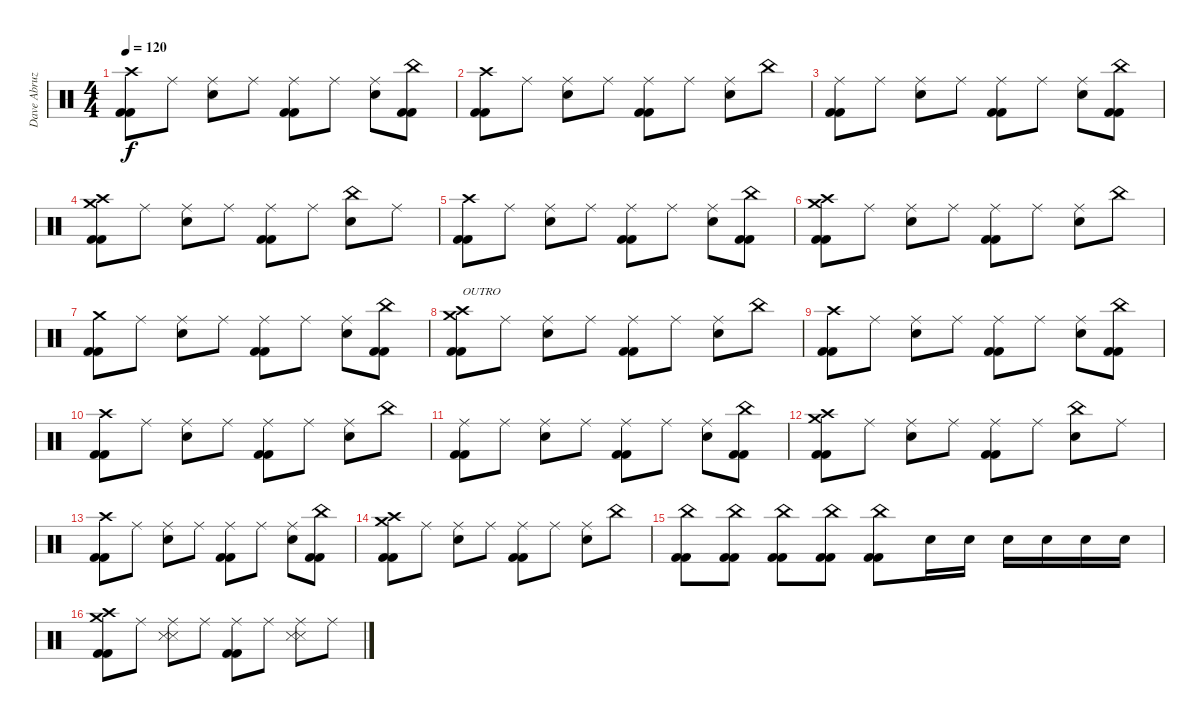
\track ("Dave Abruzzese" "Dave Abruz") {instrument percussion}
\staff {score}
\articulation defaults
\ts (4 4)
\tempo 120
\clef neutral
\ks c
("Crash high (hit)" "Kick (hit) 2" "Kick (hit) 2").8{dy f} "Ride (middle)".8 ("Ride (middle)" "Electric Snare (hit)").8 "Ride (middle)".8 ("Ride (middle)" "Kick (hit) 2" "Kick (hit) 2").8 "Ride (middle)".8 ("Ride (middle)" "Electric Snare (hit)").8 ("China (hit)" "Kick (hit) 2" "Kick (hit) 2").8 |
("Crash high (hit)" "Kick (hit) 2" "Kick (hit) 2").8 "Ride (middle)".8 ("Ride (middle)" "Electric Snare (hit)").8 "Ride (middle)".8 ("Ride (middle)" "Kick (hit) 2" "Kick (hit) 2").8 "Ride (middle)".8 ("Ride (middle)" "Electric Snare (hit)").8 "China (hit)".8 |
("Ride (middle)" "Kick (hit) 2" "Kick (hit) 2").8 "Ride (middle)".8 ("Ride (middle)" "Electric Snare (hit)").8 "Ride (middle)".8 ("Ride (middle)" "Kick (hit) 2" "Kick (hit) 2").8 "Ride (middle)".8 ("Ride (middle)" "Electric Snare (hit)").8 ("China (hit)" "Kick (hit) 2" "Kick (hit) 2").8 |
("Crash medium (hit)" "Crash high (hit)" "Kick (hit) 2" "Kick (hit) 2").8 "Ride (middle)".8 ("Ride (middle)" "Electric Snare (hit)").8 "Ride (middle)".8 ("Ride (middle)" "Kick (hit) 2" "Kick (hit) 2").8 "Ride (middle)".8 ("China (hit)" "Electric Snare (hit)").8 "Ride (middle)".8 |
("Crash high (hit)" "Kick (hit) 2" "Kick (hit) 2").8 "Ride (middle)".8 ("Ride (middle)" "Electric Snare (hit)").8 "Ride (middle)".8 ("Ride (middle)" "Kick (hit) 2" "Kick (hit) 2").8 "Ride (middle)".8 ("Ride (middle)" "Electric Snare (hit)").8 ("China (hit)" "Kick (hit) 2" "Kick (hit) 2").8 |
("Crash high (hit)" "Crash medium (hit)" "Kick (hit) 2" "Kick (hit) 2").8 "Ride (middle)".8 ("Ride (middle)" "Electric Snare (hit)").8 "Ride (middle)".8 ("Ride (middle)" "Kick (hit) 2" "Kick (hit) 2").8 "Ride (middle)".8 ("Ride (middle)" "Electric Snare (hit)").8 "China (hit)".8 |
("Crash medium (hit)" "Kick (hit) 2" "Kick (hit) 2").8 "Ride (middle)".8 ("Ride (middle)" "Electric Snare (hit)").8 "Ride (middle)".8 ("Ride (middle)" "Kick (hit) 2" "Kick (hit) 2").8 "Ride (middle)".8 ("Ride (middle)" "Electric Snare (hit)").8 ("China (hit)" "Kick (hit) 2" "Kick (hit) 2").8 |
("Crash high (hit)" "Crash medium (hit)" "Kick (hit) 2" "Kick (hit) 2").8{txt "OUTRO"} "Ride (middle)".8 ("Ride (middle)" "Electric Snare (hit)").8 "Ride (middle)".8 ("Ride (middle)" "Kick (hit) 2" "Kick (hit) 2").8 "Ride (middle)".8 ("Ride (middle)" "Electric Snare (hit)").8 "China (hit)".8 |
("Crash high (hit)" "Kick (hit) 2" "Kick (hit) 2").8 "Ride (middle)".8 ("Ride (middle)" "Electric Snare (hit)").8 "Ride (middle)".8 ("Ride (middle)" "Kick (hit) 2" "Kick (hit) 2").8 "Ride (middle)".8 ("Ride (middle)" "Electric Snare (hit)").8 ("China (hit)" "Kick (hit) 2" "Kick (hit) 2").8 |
("Crash high (hit)" "Kick (hit) 2" "Kick (hit) 2").8 "Ride (middle)".8 ("Ride (middle)" "Electric Snare (hit)").8 "Ride (middle)".8 ("Ride (middle)" "Kick (hit) 2" "Kick (hit) 2").8 "Ride (middle)".8 ("Ride (middle)" "Electric Snare (hit)").8 "China (hit)".8 |
("Ride (middle)" "Kick (hit) 2" "Kick (hit) 2").8 "Ride (middle)".8 ("Ride (middle)" "Electric Snare (hit)").8 "Ride (middle)".8 ("Ride (middle)" "Kick (hit) 2" "Kick (hit) 2").8 "Ride (middle)".8 ("Ride (middle)" "Electric Snare (hit)").8 ("China (hit)" "Kick (hit) 2" "Kick (hit) 2").8 |
("Crash medium (hit)" "Crash high (hit)" "Kick (hit) 2" "Kick (hit) 2").8 "Ride (middle)".8 ("Ride (middle)" "Electric Snare (hit)").8 "Ride (middle)".8 ("Ride (middle)" "Kick (hit) 2" "Kick (hit) 2").8 "Ride (middle)".8 ("China (hit)" "Electric Snare (hit)").8 "Ride (middle)".8 |
("Crash high (hit)" "Kick (hit) 2" "Kick (hit) 2").8 "Ride (middle)".8 ("Ride (middle)" "Electric Snare (hit)").8 "Ride (middle)".8 ("Ride (middle)" "Kick (hit) 2" "Kick (hit) 2").8 "Ride (middle)".8 ("Ride (middle)" "Electric Snare (hit)").8 ("China (hit)" "Kick (hit) 2" "Kick (hit) 2").8 |
("Crash high (hit)" "Crash medium (hit)" "Kick (hit) 2" "Kick (hit) 2").8 "Ride (middle)".8 ("Ride (middle)" "Electric Snare (hit)").8 "Ride (middle)".8 ("Ride (middle)" "Kick (hit) 2" "Kick (hit) 2").8 "Ride (middle)".8 ("Ride (middle)" "Electric Snare (hit)").8 "China (hit)".8 |
("China (hit)" "Kick (hit) 2" "Kick (hit) 2").8 ("China (hit)" "Kick (hit) 2" "Kick (hit) 2").8 ("China (hit)" "Kick (hit) 2" "Kick (hit) 2").8 ("China (hit)" "Kick (hit) 2" "Kick (hit) 2").8 ("China (hit)" "Kick (hit) 2" "Kick (hit) 2").8 "Electric Snare (hit)".16 "Electric Snare (hit)".16 "Electric Snare (hit)".16 "Electric Snare (hit)".16 "Electric Snare (hit)".16 "Electric Snare (hit)".16 |
\section ("" "")
("Crash high (hit)" "Crash medium (hit)" "Kick (hit) 2" "Kick (hit) 2").8 "Ride (middle)".8 ("Ride (middle)" "Snare (side stick) 3" "Snare (side stick) 3").8 "Ride (middle)".8 ("Ride (middle)" "Kick (hit) 2" "Kick (hit) 2").8 "Ride (middle)".8 ("Ride (middle)" "Snare (side stick) 3" "Snare (side stick) 3").8 "Ride (middle)".8
